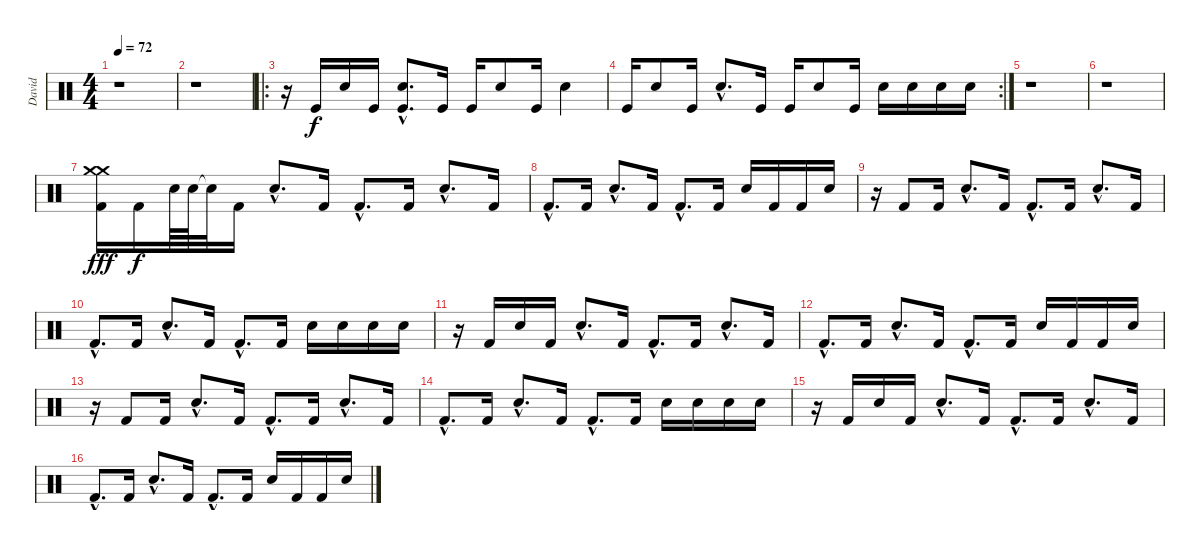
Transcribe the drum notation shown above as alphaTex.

\track ("David" "David") {instrument percussion}
\staff {score}
\articulation defaults
\ts (4 4)
\tempo 72
\clef neutral
\ks c
r.1{dy f} |
r.1 |
\ro
r.16 "Kick (hit)".16 "Electric Snare (hit)".16 "Kick (hit)".16 ("Electric Snare (hit)"{hac} "Kick (hit)"{hac}).8{d} "Kick (hit)".16 "Kick (hit)".16 "Electric Snare (hit)".8 "Kick (hit)".16 "Electric Snare (hit)".4 |
\rc 2 "Kick (hit)".16 "Electric Snare (hit)".8 "Kick (hit)".16 "Electric Snare (hit)"{hac}.8{d} "Kick (hit)".16 "Kick (hit)".16 "Electric Snare (hit)".8 "Kick (hit)".16 "Electric Snare (hit)".16 "Electric Snare (hit)".16 "Electric Snare (hit)".16 "Electric Snare (hit)".16
|
r.1 |
r.1 |
("Crash medium (hit)" "Crash medium (hit)" "Kick (hit) 2").16{dy fff} "Kick (hit) 2".16{dy f} "Snare (hit) 2".64 "Snare (hit) 2".64 "Snare (hit)"{t}.32 "Kick (hit) 2".16 "Snare (hit) 2"{hac}.8{d} "Kick (hit) 2".16 "Kick (hit) 2"{hac}.8{d} "Kick (hit) 2".16 "Snare (hit) 2"{hac}.8{d} "Kick (hit) 2".16 |
"Kick (hit) 2"{hac}.8{d} "Kick (hit) 2".16 "Snare (hit) 2"{hac}.8{d} "Kick (hit) 2".16 "Kick (hit) 2"{hac}.8{d} "Kick (hit) 2".16 "Snare (hit) 2".16 "Kick (hit) 2".16 "Kick (hit) 2".16 "Snare (hit) 2".16 |
r.16 "Kick (hit) 2".8 "Kick (hit) 2".16 "Snare (hit) 2"{hac}.8{d} "Kick (hit) 2".16 "Kick (hit) 2"{hac}.8{d} "Kick (hit) 2".16 "Snare (hit) 2"{hac}.8{d} "Kick (hit) 2".16 |
"Kick (hit) 2"{hac}.8{d} "Kick (hit) 2".16 "Snare (hit) 2"{hac}.8{d} "Kick (hit) 2".16 "Kick (hit) 2"{hac}.8{d} "Kick (hit) 2".16 "Snare (hit) 2".16 "Snare (hit) 2".16 "Snare (hit) 2".16 "Snare (hit) 2".16 |
r.16 "Kick (hit) 2".16 "Snare (hit) 2".16 "Kick (hit) 2".16 "Snare (hit) 2"{hac}.8{d} "Kick (hit) 2".16 "Kick (hit) 2"{hac}.8{d} "Kick (hit) 2".16 "Snare (hit) 2"{hac}.8{d} "Kick (hit) 2".16 |
"Kick (hit) 2"{hac}.8{d} "Kick (hit) 2".16 "Snare (hit) 2"{hac}.8{d} "Kick (hit) 2".16 "Kick (hit) 2"{hac}.8{d} "Kick (hit) 2".16 "Snare (hit) 2".16 "Kick (hit) 2".16 "Kick (hit) 2".16 "Snare (hit) 2".16 |
r.16 "Kick (hit) 2".8 "Kick (hit) 2".16 "Snare (hit) 2"{hac}.8{d} "Kick (hit) 2".16 "Kick (hit) 2"{hac}.8{d} "Kick (hit) 2".16 "Snare (hit) 2"{hac}.8{d} "Kick (hit) 2".16 |
"Kick (hit) 2"{hac}.8{d} "Kick (hit) 2".16 "Snare (hit) 2"{hac}.8{d} "Kick (hit) 2".16 "Kick (hit) 2"{hac}.8{d} "Kick (hit) 2".16 "Snare (hit) 2".16 "Snare (hit) 2".16 "Snare (hit) 2".16 "Snare (hit) 2".16 |
r.16 "Kick (hit) 2".16 "Snare (hit) 2".16 "Kick (hit) 2".16 "Snare (hit) 2"{hac}.8{d} "Kick (hit) 2".16 "Kick (hit) 2"{hac}.8{d} "Kick (hit) 2".16 "Snare (hit) 2"{hac}.8{d} "Kick (hit) 2".16 |
"Kick (hit) 2"{hac}.8{d} "Kick (hit) 2".16 "Snare (hit) 2"{hac}.8{d} "Kick (hit) 2".16 "Kick (hit) 2"{hac}.8{d} "Kick (hit) 2".16 "Snare (hit) 2".16 "Kick (hit) 2".16 "Kick (hit) 2".16 "Snare (hit) 2".16
